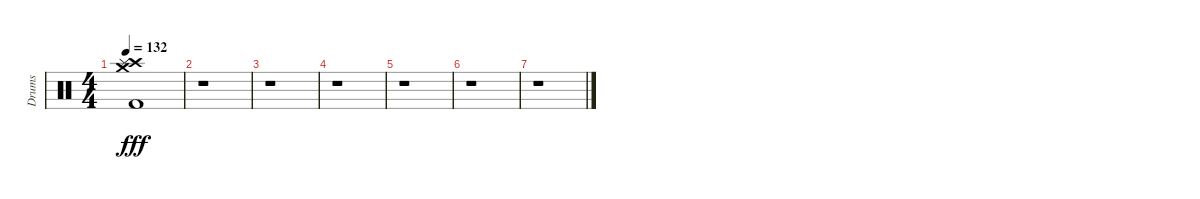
\track ("Drums" "Drums") {instrument percussion}
\staff {score}
\articulation defaults
\ts (4 4)
\tempo 132
\clef neutral
\ks c
("Crash medium (hit)" "Crash high (hit)" "Splash (hit)" "Kick (hit) 2").1{dy fff} |
r.1 |
r.1 |
r.1 |
r.1 |
r.1 |
r.1
